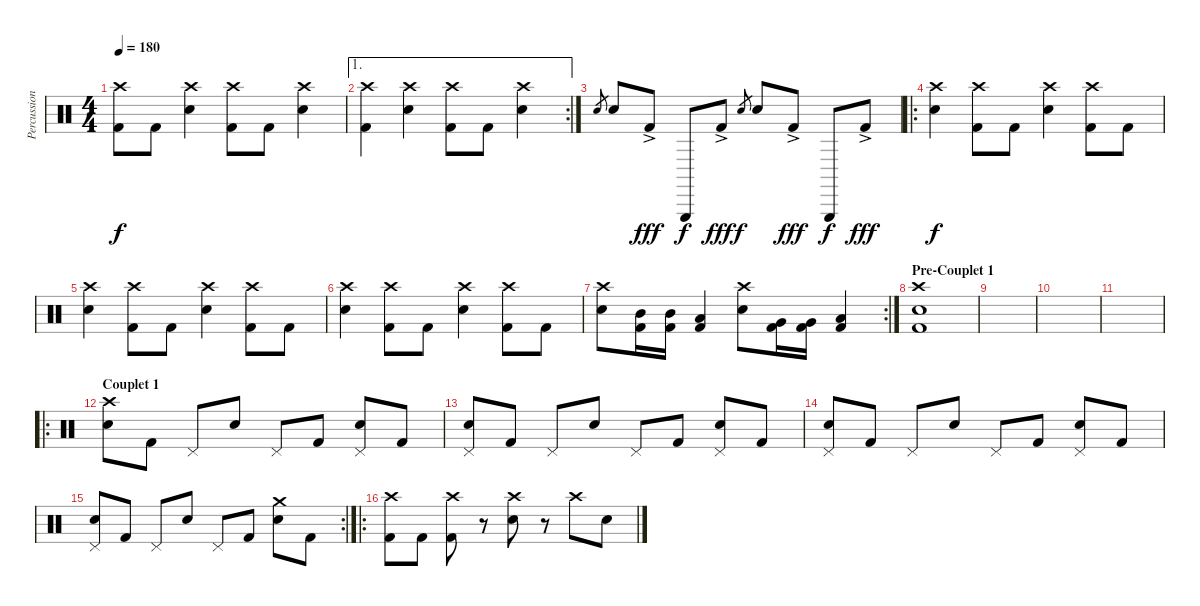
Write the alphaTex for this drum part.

\track ("Percussions" "Percussion") {instrument percussion}
\staff {score}
\articulation defaults
\ts (4 4)
\tempo 180
\clef neutral
\ks c
("Crash high (hit)" "Kick (hit) 2").8{dy f} "Kick (hit) 2".8 ("Crash high (hit)" "Snare (hit) 2").4 ("Crash high (hit)" "Kick (hit) 2").8 "Kick (hit) 2".8 ("Crash high (hit)" "Snare (hit) 2").4 |
\ae 1
\rc 2
("Crash high (hit)" "Kick (hit) 2").4 ("Crash high (hit)" "Snare (hit) 2").4 ("Crash high (hit)" "Kick (hit) 2").8 "Kick (hit) 2".8 ("Crash high (hit)" "Snare (hit) 2").4 |
"Snare (hit) 2".8{gr} "Snare (hit) 2".8 "Kick (hit) 2"{ac}.8{dy fff} "Triangle (hit)".8{dy f} "Kick (hit) 2"{ac}.8{dy fff} "Snare (hit) 2".8{gr dy f} "Snare (hit) 2".8 "Kick (hit) 2"{ac}.8{dy fff} "Triangle (hit)".8{dy f} "Kick (hit) 2"{ac}.8{dy fff} |
\ro
("Crash high (hit)" "Snare (hit) 2").4{dy f} ("Crash high (hit)" "Kick (hit) 2").8 "Kick (hit) 2".8 ("Crash high (hit)" "Snare (hit) 2").4 ("Crash high (hit)" "Kick (hit) 2").8 "Kick (hit) 2".8 |
("Crash high (hit)" "Snare (hit) 2").4 ("Crash high (hit)" "Kick (hit) 2").8 "Kick (hit) 2".8 ("Crash high (hit)" "Snare (hit) 2").4 ("Crash high (hit)" "Kick (hit) 2").8 "Kick (hit) 2".8 |
("Crash high (hit)" "Snare (hit) 2").4 ("Crash high (hit)" "Kick (hit) 2").8 "Kick (hit) 2".8 ("Crash high (hit)" "Snare (hit) 2").4 ("Crash high (hit)" "Kick (hit) 2").8 "Kick (hit) 2".8 |
\rc 2
("Crash high (hit)" "Snare (hit) 2").8 ("Mid Tom (hit)" "Kick (hit) 2").16 ("Mid Tom (hit)" "Kick (hit) 2").16 ("Low Tom (hit)" "Kick (hit) 2").4 ("Crash high (hit)" "Snare (hit) 2").8 ("Very Low Tom (hit)" "Kick (hit) 2").16 ("Very Low Tom (hit)" "Kick (hit) 2").16 ("Low Floor Tom (hit)" "Kick (hit) 2").4 |
\section ("" "Pre-Couplet 1")
("Crash high (hit)" "Snare (hit) 2" "Kick (hit) 2").1 |
|
|
|
\ro
\section ("" "Couplet 1")
("Crash high (hit)" "Electric Snare (hit)").8 "Kick (hit) 2".8 "Pedal Hi-Hat (hit)".8 "Electric Snare (hit)".8 "Pedal Hi-Hat (hit)".8 "Kick (hit) 2".8 ("Pedal Hi-Hat (hit)" "Electric Snare (hit)").8 "Kick (hit) 2".8 |
("Pedal Hi-Hat (hit)" "Electric Snare (hit)").8 "Kick (hit) 2".8 "Pedal Hi-Hat (hit)".8 "Electric Snare (hit)".8 "Pedal Hi-Hat (hit)".8 "Kick (hit) 2".8 ("Pedal Hi-Hat (hit)" "Electric Snare (hit)").8 "Kick (hit) 2".8 |
("Pedal Hi-Hat (hit)" "Electric Snare (hit)").8 "Kick (hit) 2".8 "Pedal Hi-Hat (hit)".8 "Electric Snare (hit)".8 "Pedal Hi-Hat (hit)".8 "Kick (hit) 2".8 ("Pedal Hi-Hat (hit)" "Electric Snare (hit)").8 "Kick (hit) 2".8 |
\rc 2
("Pedal Hi-Hat (hit)" "Electric Snare (hit)").8 "Kick (hit) 2".8 "Pedal Hi-Hat (hit)".8 "Electric Snare (hit)".8 "Pedal Hi-Hat (hit)".8 "Kick (hit) 2".8 ("Crash medium (hit)" "Electric Snare (hit)").8 "Kick (hit) 2".8 |
\ro
("Crash high (hit)" "Kick (hit) 2").8 "Kick (hit) 2".8 ("Crash high (hit)" "Kick (hit) 2").8 r.8 ("Crash high (hit)" "Snare (hit) 2").8 r.8 "Crash high (hit)".8 "Snare (hit) 2".8
